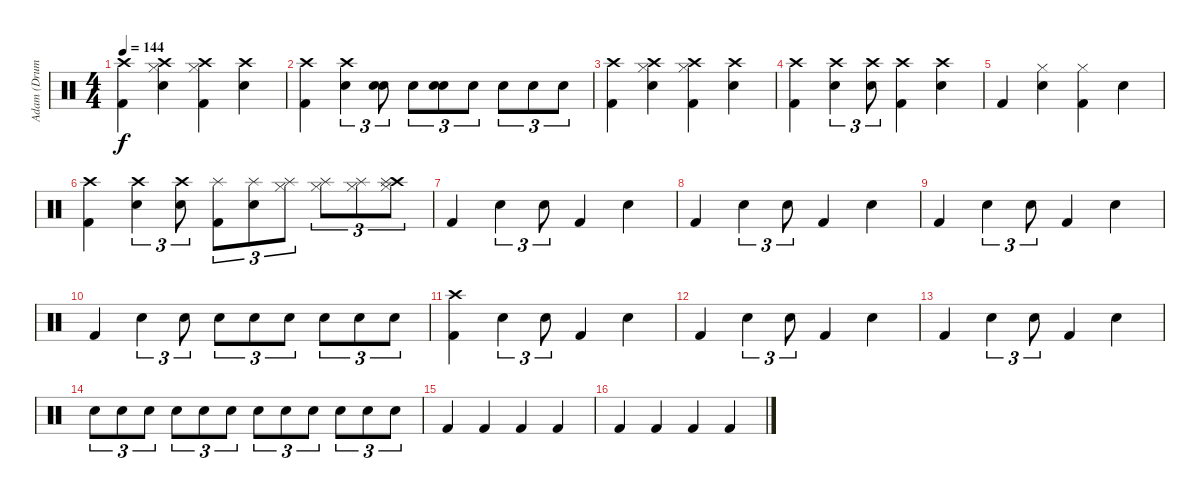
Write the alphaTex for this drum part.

\track ("Adam (Drums)" "Adam (Drum") {instrument percussion}
\staff {score}
\articulation defaults
\ts (4 4)
\tempo 144
\clef neutral
\ks c
("Crash high (hit)" "Kick (hit) 2").4{dy f} ("Hi-Hat (closed)" "Crash high (hit)" "Electric Snare (hit)").4 ("Hi-Hat (closed)" "Crash high (hit)" "Kick (hit) 2").4 ("Crash high (hit)" "Electric Snare (hit)").4 |
("Kick (hit) 2" "Crash high (hit)").4 ("Electric Snare (hit)" "Crash high (hit)").4{tu (3 2)} ("Electric Snare (hit)" "Electric Snare (hit)").8{tu (3 2)} "Electric Snare (hit)".8{tu (3 2)} ("Electric Snare (hit)" "Electric Snare (hit)").8{tu (3 2)} "Electric Snare (hit)".8{tu (3 2)} "Electric Snare (hit)".8{tu (3 2)} "Electric Snare (hit)".8{tu (3 2)} "Electric Snare (hit)".8{tu (3 2)} |
("Crash high (hit)" "Kick (hit) 2").4 ("Hi-Hat (closed)" "Crash high (hit)" "Electric Snare (hit)").4 ("Hi-Hat (closed)" "Crash high (hit)" "Kick (hit) 2").4 ("Crash high (hit)" "Electric Snare (hit)").4 |
("Kick (hit) 2" "Crash high (hit)").4 ("Electric Snare (hit)" "Crash high (hit)").4{tu (3 2)} ("Electric Snare (hit)" "Crash high (hit)").8{tu (3 2)} ("Kick (hit) 2" "Crash high (hit)").4 ("Electric Snare (hit)" "Crash high (hit)").4 |
"Kick (hit) 2".4 ("Hi-Hat (closed)" "Electric Snare (hit)").4 ("Hi-Hat (closed)" "Kick (hit) 2").4 "Electric Snare (hit)".4 |
("Kick (hit) 2" "Crash high (hit)").4 ("Electric Snare (hit)" "Crash high (hit)").4{tu (3 2)} ("Electric Snare (hit)" "Crash high (hit)").8{tu (3 2)} ("Kick (hit) 2" "Splash (hit)").8{tu (3 2)} ("Electric Snare (hit)" "Splash (hit)").8{tu (3 2)} ("Hi-Hat (closed)" "Splash (hit)").8{tu (3 2)} ("Hi-Hat (closed)" "Splash (hit)").8{tu (3 2)} ("Hi-Hat (closed)" "Splash (hit)").8{tu (3 2)} ("Crash high (hit)" "Hi-Hat (closed)" "Splash (hit)").8{tu (3 2)} |
"Kick (hit) 2".4 "Electric Snare (hit)".4{tu (3 2)} "Electric Snare (hit)".8{tu (3 2)} "Kick (hit) 2".4 "Electric Snare (hit)".4 |
"Kick (hit) 2".4 "Electric Snare (hit)".4{tu (3 2)} "Electric Snare (hit)".8{tu (3 2)} "Kick (hit) 2".4 "Electric Snare (hit)".4 |
"Kick (hit) 2".4 "Electric Snare (hit)".4{tu (3 2)} "Electric Snare (hit)".8{tu (3 2)} "Kick (hit) 2".4 "Electric Snare (hit)".4 |
"Kick (hit) 2".4 "Electric Snare (hit)".4{tu (3 2)} "Electric Snare (hit)".8{tu (3 2)} "Electric Snare (hit)".8{tu (3 2)} "Electric Snare (hit)".8{tu (3 2)} "Electric Snare (hit)".8{tu (3 2)} "Electric Snare (hit)".8{tu (3 2)} "Electric Snare (hit)".8{tu (3 2)} "Electric Snare (hit)".8{tu (3 2)} |
("Crash high (hit)" "Kick (hit) 2").4 "Electric Snare (hit)".4{tu (3 2)} "Electric Snare (hit)".8{tu (3 2)} "Kick (hit) 2".4 "Electric Snare (hit)".4 |
"Kick (hit) 2".4 "Electric Snare (hit)".4{tu (3 2)} "Electric Snare (hit)".8{tu (3 2)} "Kick (hit) 2".4 "Electric Snare (hit)".4 |
"Kick (hit) 2".4 "Electric Snare (hit)".4{tu (3 2)} "Electric Snare (hit)".8{tu (3 2)} "Kick (hit) 2".4 "Electric Snare (hit)".4 |
"Electric Snare (hit)".8{tu (3 2)} "Electric Snare (hit)".8{tu (3 2)} "Electric Snare (hit)".8{tu (3 2)} "Electric Snare (hit)".8{tu (3 2)} "Electric Snare (hit)".8{tu (3 2)} "Electric Snare (hit)".8{tu (3 2)} "Electric Snare (hit)".8{tu (3 2)} "Electric Snare (hit)".8{tu (3 2)} "Electric Snare (hit)".8{tu (3 2)} "Electric Snare (hit)".8{tu (3 2)} "Electric Snare (hit)".8{tu (3 2)} "Electric Snare (hit)".8{tu (3 2)} |
"Kick (hit) 2".4 "Kick (hit) 2".4 "Kick (hit) 2".4 "Kick (hit) 2".4 |
"Kick (hit) 2".4 "Kick (hit) 2".4 "Kick (hit) 2".4 "Kick (hit) 2".4
